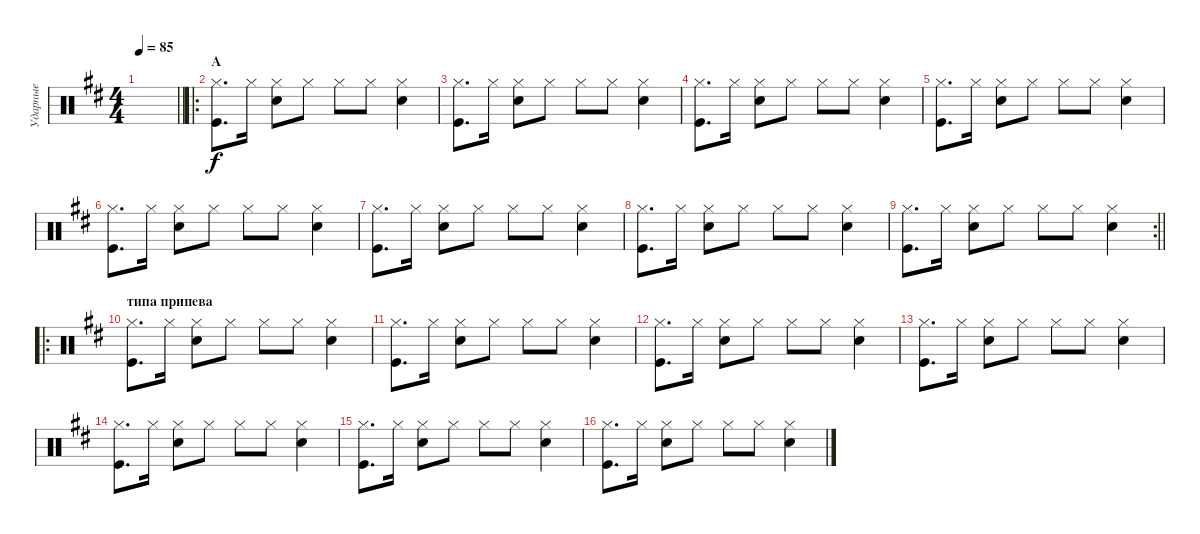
\track ("Ударные" "Ударные") {instrument percussion}
\staff {score}
\articulation defaults
\ts (4 4)
\tempo 85
\clef neutral
\barLineRight lightlight
\ks d
|
\ro
\section ("" "A")
("Hi-Hat (closed)" "Kick (hit)").8{d} "Hi-Hat (closed)".16 ("Hi-Hat (closed)" "Snare (hit) 2").8 "Hi-Hat (closed)".8 "Hi-Hat (closed)".8 "Hi-Hat (closed)".8 ("Hi-Hat (closed)" "Snare (hit) 2").4 |
("Hi-Hat (closed)" "Kick (hit)").8{d} "Hi-Hat (closed)".16 ("Hi-Hat (closed)" "Snare (hit) 2").8 "Hi-Hat (closed)".8 "Hi-Hat (closed)".8 "Hi-Hat (closed)".8 ("Hi-Hat (closed)" "Snare (hit) 2").4 |
("Hi-Hat (closed)" "Kick (hit)").8{d} "Hi-Hat (closed)".16 ("Hi-Hat (closed)" "Snare (hit) 2").8 "Hi-Hat (closed)".8 "Hi-Hat (closed)".8 "Hi-Hat (closed)".8 ("Hi-Hat (closed)" "Snare (hit) 2").4 |
("Hi-Hat (closed)" "Kick (hit)").8{d} "Hi-Hat (closed)".16 ("Hi-Hat (closed)" "Snare (hit) 2").8 "Hi-Hat (closed)".8 "Hi-Hat (closed)".8 "Hi-Hat (closed)".8 ("Hi-Hat (closed)" "Snare (hit) 2").4 |
("Hi-Hat (closed)" "Kick (hit)").8{d} "Hi-Hat (closed)".16 ("Hi-Hat (closed)" "Snare (hit) 2").8 "Hi-Hat (closed)".8 "Hi-Hat (closed)".8 "Hi-Hat (closed)".8 ("Hi-Hat (closed)" "Snare (hit) 2").4 |
("Hi-Hat (closed)" "Kick (hit)").8{d} "Hi-Hat (closed)".16 ("Hi-Hat (closed)" "Snare (hit) 2").8 "Hi-Hat (closed)".8 "Hi-Hat (closed)".8 "Hi-Hat (closed)".8 ("Hi-Hat (closed)" "Snare (hit) 2").4 |
("Hi-Hat (closed)" "Kick (hit)").8{d} "Hi-Hat (closed)".16 ("Hi-Hat (closed)" "Snare (hit) 2").8 "Hi-Hat (closed)".8 "Hi-Hat (closed)".8 "Hi-Hat (closed)".8 ("Hi-Hat (closed)" "Snare (hit) 2").4 |
\rc 2
\barLineRight lightlight
("Hi-Hat (closed)" "Kick (hit)").8{d} "Hi-Hat (closed)".16 ("Hi-Hat (closed)" "Snare (hit) 2").8 "Hi-Hat (closed)".8 "Hi-Hat (closed)".8 "Hi-Hat (closed)".8 ("Hi-Hat (closed)" "Snare (hit) 2").4 |
\ro
\section ("" "типа припева")
("Hi-Hat (closed)" "Kick (hit)").8{d} "Hi-Hat (closed)".16 ("Hi-Hat (closed)" "Snare (hit) 2").8 "Hi-Hat (closed)".8 "Hi-Hat (closed)".8 "Hi-Hat (closed)".8 ("Hi-Hat (closed)" "Snare (hit) 2").4 |
("Hi-Hat (closed)" "Kick (hit)").8{d} "Hi-Hat (closed)".16 ("Hi-Hat (closed)" "Snare (hit) 2").8 "Hi-Hat (closed)".8 "Hi-Hat (closed)".8 "Hi-Hat (closed)".8 ("Hi-Hat (closed)" "Snare (hit) 2").4 |
("Hi-Hat (closed)" "Kick (hit)").8{d} "Hi-Hat (closed)".16 ("Hi-Hat (closed)" "Snare (hit) 2").8 "Hi-Hat (closed)".8 "Hi-Hat (closed)".8 "Hi-Hat (closed)".8 ("Hi-Hat (closed)" "Snare (hit) 2").4 |
("Hi-Hat (closed)" "Kick (hit)").8{d} "Hi-Hat (closed)".16 ("Hi-Hat (closed)" "Snare (hit) 2").8 "Hi-Hat (closed)".8 "Hi-Hat (closed)".8 "Hi-Hat (closed)".8 ("Hi-Hat (closed)" "Snare (hit) 2").4 |
("Hi-Hat (closed)" "Kick (hit)").8{d} "Hi-Hat (closed)".16 ("Hi-Hat (closed)" "Snare (hit) 2").8 "Hi-Hat (closed)".8 "Hi-Hat (closed)".8 "Hi-Hat (closed)".8 ("Hi-Hat (closed)" "Snare (hit) 2").4 |
("Hi-Hat (closed)" "Kick (hit)").8{d} "Hi-Hat (closed)".16 ("Hi-Hat (closed)" "Snare (hit) 2").8 "Hi-Hat (closed)".8 "Hi-Hat (closed)".8 "Hi-Hat (closed)".8 ("Hi-Hat (closed)" "Snare (hit) 2").4 |
("Hi-Hat (closed)" "Kick (hit)").8{d} "Hi-Hat (closed)".16 ("Hi-Hat (closed)" "Snare (hit) 2").8 "Hi-Hat (closed)".8 "Hi-Hat (closed)".8 "Hi-Hat (closed)".8 ("Hi-Hat (closed)" "Snare (hit) 2").4
